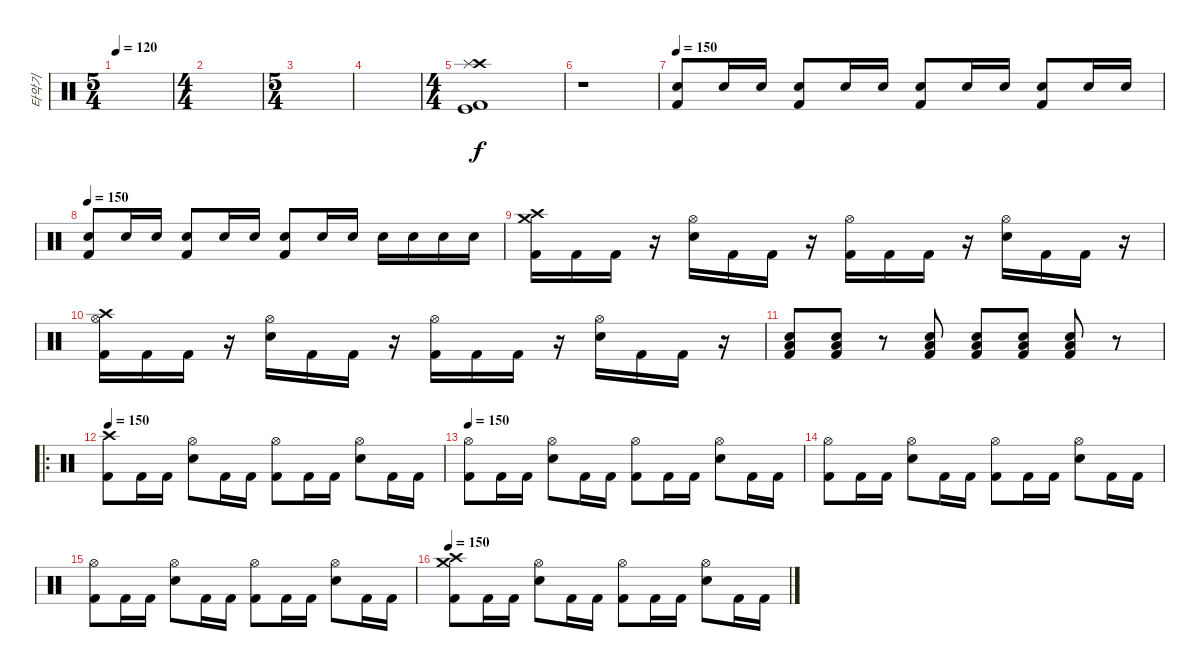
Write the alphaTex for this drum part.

\track ("타악기" "타악기") {instrument percussion}
\staff {score}
\articulation defaults
\ts (5 4)
\tempo 120
\clef neutral
\ks c
|
\ts (4 4)
|
\ts (5 4)
|
|
\ts (4 4)
("Kick (hit) 2" "Kick (hit)" "Crash high (hit)" "Splash (hit)").1 |
r.1 |
\tempo 150
("Snare (hit) 2" "Kick (hit) 2").8 "Snare (hit) 2".16 "Snare (hit) 2".16 ("Snare (hit) 2" "Kick (hit) 2").8 "Snare (hit) 2".16 "Snare (hit) 2".16 ("Snare (hit) 2" "Kick (hit) 2").8 "Snare (hit) 2".16 "Snare (hit) 2".16 ("Snare (hit) 2" "Kick (hit) 2").8 "Snare (hit) 2".16 "Snare (hit) 2".16 |
\tempo 150
("Snare (hit) 2" "Kick (hit) 2").8 "Snare (hit) 2".16 "Snare (hit) 2".16 ("Snare (hit) 2" "Kick (hit) 2").8 "Snare (hit) 2".16 "Snare (hit) 2".16 ("Snare (hit) 2" "Kick (hit) 2").8 "Snare (hit) 2".16 "Snare (hit) 2".16 "Snare (hit) 2".16 "Snare (hit) 2".16 "Snare (hit) 2".16 "Snare (hit) 2".16 |
("Crash medium (hit)" "Crash high (hit)" "Kick (hit) 2").16 "Kick (hit) 2".16 "Kick (hit) 2".16 r.16 ("Hi-Hat (open)" "Snare (hit) 2").16 "Kick (hit) 2".16 "Kick (hit) 2".16 r.16 ("Hi-Hat (open)" "Kick (hit) 2").16 "Kick (hit) 2".16 "Kick (hit) 2".16 r.16 ("Hi-Hat (open)" "Snare (hit) 2").16 "Kick (hit) 2".16 "Kick (hit) 2".16 r.16 |
("Hi-Hat (open)" "Crash high (hit)" "Kick (hit) 2").16 "Kick (hit) 2".16 "Kick (hit) 2".16 r.16 ("Hi-Hat (open)" "Snare (hit) 2").16 "Kick (hit) 2".16 "Kick (hit) 2".16 r.16 ("Hi-Hat (open)" "Kick (hit) 2").16 "Kick (hit) 2".16 "Kick (hit) 2".16 r.16 ("Hi-Hat (open)" "Snare (hit) 2").16 "Kick (hit) 2".16 "Kick (hit) 2".16 r.16 |
("Kick (hit) 2" "Low Floor Tom (hit)" "Snare (hit) 2").8 ("Kick (hit) 2" "Low Floor Tom (hit)" "Snare (hit) 2").8 r.8 ("Kick (hit) 2" "Snare (hit) 2" "Low Floor Tom (hit)").8 ("Snare (hit) 2" "Low Floor Tom (hit)" "Kick (hit) 2").8 ("Snare (hit) 2" "Kick (hit) 2" "Low Floor Tom (hit)").8 ("Snare (hit) 2" "Low Floor Tom (hit)" "Kick (hit) 2").8 r.8 |
\ro
\tempo 150
("Crash high (hit)" "Kick (hit) 2").8 "Kick (hit) 2".16 "Kick (hit) 2".16 ("Snare (hit) 2" "Hi-Hat (open)").8 "Kick (hit) 2".16 "Kick (hit) 2".16 ("Kick (hit) 2" "Hi-Hat (open)").8 "Kick (hit) 2".16 "Kick (hit) 2".16 ("Hi-Hat (open)" "Snare (hit) 2").8 "Kick (hit) 2".16 "Kick (hit) 2".16 |
\tempo 150
("Hi-Hat (open)" "Kick (hit) 2").8 "Kick (hit) 2".16 "Kick (hit) 2".16 ("Snare (hit) 2" "Hi-Hat (open)").8 "Kick (hit) 2".16 "Kick (hit) 2".16 ("Kick (hit) 2" "Hi-Hat (open)").8 "Kick (hit) 2".16 "Kick (hit) 2".16 ("Hi-Hat (open)" "Snare (hit) 2").8 "Kick (hit) 2".16 "Kick (hit) 2".16 |
("Hi-Hat (open)" "Kick (hit) 2").8 "Kick (hit) 2".16 "Kick (hit) 2".16 ("Snare (hit) 2" "Hi-Hat (open)").8 "Kick (hit) 2".16 "Kick (hit) 2".16 ("Kick (hit) 2" "Hi-Hat (open)").8 "Kick (hit) 2".16 "Kick (hit) 2".16 ("Hi-Hat (open)" "Snare (hit) 2").8 "Kick (hit) 2".16 "Kick (hit) 2".16 |
("Hi-Hat (open)" "Kick (hit) 2").8 "Kick (hit) 2".16 "Kick (hit) 2".16 ("Snare (hit) 2" "Hi-Hat (open)").8 "Kick (hit) 2".16 "Kick (hit) 2".16 ("Kick (hit) 2" "Hi-Hat (open)").8 "Kick (hit) 2".16 "Kick (hit) 2".16 ("Hi-Hat (open)" "Snare (hit) 2").8 "Kick (hit) 2".16 "Kick (hit) 2".16 |
\tempo 150
("Crash medium (hit)" "Crash high (hit)" "Kick (hit) 2").8 "Kick (hit) 2".16 "Kick (hit) 2".16 ("Snare (hit) 2" "Hi-Hat (open)").8 "Kick (hit) 2".16 "Kick (hit) 2".16 ("Kick (hit) 2" "Hi-Hat (open)").8 "Kick (hit) 2".16 "Kick (hit) 2".16 ("Hi-Hat (open)" "Snare (hit) 2").8 "Kick (hit) 2".16 "Kick (hit) 2".16
